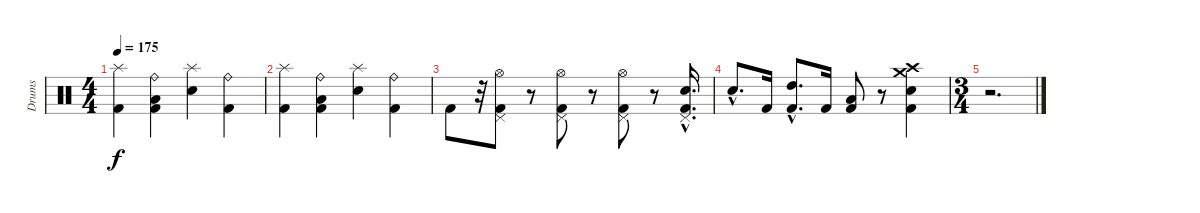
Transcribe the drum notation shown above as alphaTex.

\track ("Drums" "Drums") {instrument percussion}
\staff {score}
\articulation defaults
\ts (4 4)
\tempo 175
\clef neutral
\ks c
("Kick (hit) 2" "Splash (hit)").4{dy f} ("Kick (hit) 2" "Low Tom (hit)" "Ride (bell)").4 ("Electric Snare (hit)" "Splash (hit)").4 ("Kick (hit) 2" "Ride (bell)").4 |
("Kick (hit) 2" "Splash (hit)").4 ("Kick (hit) 2" "Low Tom (hit)" "Ride (bell)").4 ("Electric Snare (hit)" "Splash (hit)").4 ("Kick (hit) 2" "Ride (bell)").4 |
"Kick (hit) 2".8 r.32 ("Pedal Hi-Hat (hit)" "Hi-Hat (open)" "Kick (hit) 2").8 r.8 ("Pedal Hi-Hat (hit)" "Hi-Hat (open)" "Kick (hit) 2").8 r.8 ("Pedal Hi-Hat (hit)" "Hi-Hat (open)" "Kick (hit) 2").8 r.8 ("Pedal Hi-Hat (hit)"{hac} "Electric Snare (hit)"{hac} "Kick (hit) 2"{hac}).16{d} |
"Electric Snare (hit)"{hac}.8{d} "Kick (hit) 2".16 ("High Tom (hit)"{hac} "Kick (hit) 2"{hac}).8{d} "Kick (hit) 2".16 ("Low Tom (hit)" "Kick (hit) 2").8 r.8 ("Kick (hit) 2" "Electric Snare (hit)" "Crash medium (hit)" "Crash high (hit)").4 |
\ts (3 4)
r.2{d}
